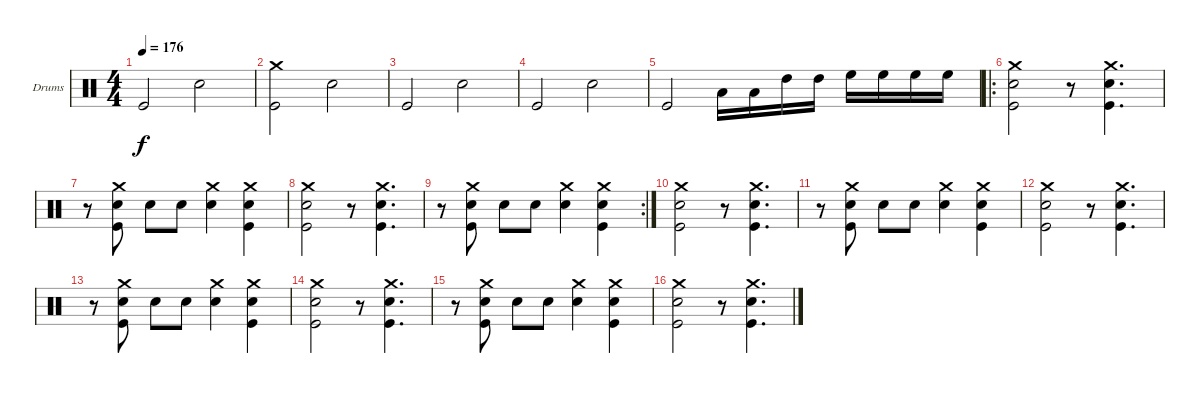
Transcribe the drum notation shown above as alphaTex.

\bracketExtendMode groupsimilarinstruments
\firstSystemTrackNameOrientation horizontal
\otherSystemsTrackNameOrientation horizontal
\track ("Drumkit" "Drums") {instrument percussion}
\staff {score}
\articulation defaults
\ts (4 4)
\tempo 176
\clef neutral
\ks c "Kick (hit)".2{dy f} "Snare (hit) 2".2
|
("Crash medium (hit)" "Kick (hit)").2 "Snare (hit) 2".2 |
"Kick (hit)".2 "Snare (hit) 2".2 |
"Kick (hit)".2 "Snare (hit) 2".2 |
"Kick (hit)".2 "Low Tom (hit)".16 "Low Tom (hit)".16 "High Tom (hit)".16 "High Tom (hit)".16 "High Floor Tom (hit)".16 "High Floor Tom (hit)".16 "High Floor Tom (hit)".16 "High Floor Tom (hit)".16 |
\ro
("Crash medium (hit)" "Snare (hit) 2" "Kick (hit)").2 r.8 ("Crash medium (hit)" "Snare (hit) 2" "Kick (hit)").4{d} |
r.8 ("Crash medium (hit)" "Snare (hit) 2" "Kick (hit)").8 "Snare (hit) 2".8 "Snare (hit) 2".8 ("Crash medium (hit)" "Snare (hit) 2").4 ("Crash medium (hit)" "Snare (hit) 2" "Kick (hit)").4 |
("Crash medium (hit)" "Snare (hit) 2" "Kick (hit)").2 r.8 ("Crash medium (hit)" "Snare (hit) 2" "Kick (hit)").4{d} |
\rc 2
r.8 ("Crash medium (hit)" "Snare (hit) 2" "Kick (hit)").8 "Snare (hit) 2".8 "Snare (hit) 2".8 ("Crash medium (hit)" "Snare (hit) 2").4 ("Crash medium (hit)" "Snare (hit) 2" "Kick (hit)").4 |
("Crash medium (hit)" "Snare (hit) 2" "Kick (hit)").2 r.8 ("Crash medium (hit)" "Snare (hit) 2" "Kick (hit)").4{d} |
r.8 ("Crash medium (hit)" "Snare (hit) 2" "Kick (hit)").8 "Snare (hit) 2".8 "Snare (hit) 2".8 ("Crash medium (hit)" "Snare (hit) 2").4 ("Crash medium (hit)" "Snare (hit) 2" "Kick (hit)").4 |
("Crash medium (hit)" "Snare (hit) 2" "Kick (hit)").2 r.8 ("Crash medium (hit)" "Snare (hit) 2" "Kick (hit)").4{d} |
r.8 ("Crash medium (hit)" "Snare (hit) 2" "Kick (hit)").8 "Snare (hit) 2".8 "Snare (hit) 2".8 ("Crash medium (hit)" "Snare (hit) 2").4 ("Crash medium (hit)" "Snare (hit) 2" "Kick (hit)").4 |
("Crash medium (hit)" "Snare (hit) 2" "Kick (hit)").2 r.8 ("Crash medium (hit)" "Snare (hit) 2" "Kick (hit)").4{d} |
r.8 ("Crash medium (hit)" "Snare (hit) 2" "Kick (hit)").8 "Snare (hit) 2".8 "Snare (hit) 2".8 ("Crash medium (hit)" "Snare (hit) 2").4 ("Crash medium (hit)" "Snare (hit) 2" "Kick (hit)").4 |
("Crash medium (hit)" "Snare (hit) 2" "Kick (hit)").2 r.8 ("Crash medium (hit)" "Snare (hit) 2" "Kick (hit)").4{d}
